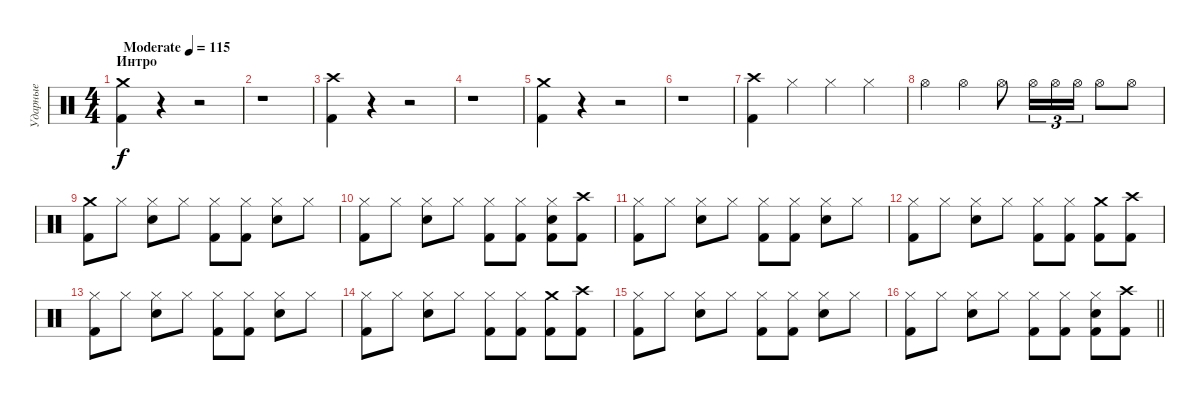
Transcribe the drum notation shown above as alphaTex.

\track ("Ударные" "Ударные") {instrument percussion}
\staff {score}
\articulation defaults
\ts (4 4)
\section ("" "Интро")
\tempo (115 "Moderate")
\clef neutral
\ks c
("Kick (hit) 2" "Crash medium (hit)").4{dy f} r.4 r.2 |
r.1 |
("Kick (hit) 2" "Crash high (hit)").4 r.4 r.2 |
r.1 |
("Kick (hit) 2" "Crash medium (hit)").4 r.4 r.2 |
r.1 |
("Kick (hit) 2" "Crash high (hit)").4 "Hi-Hat (closed)".4 "Hi-Hat (closed)".4 "Hi-Hat (closed)".4 |
"Hi-Hat (open)".4 "Hi-Hat (open)".4 "Hi-Hat (open)".8 "Hi-Hat (open)".16{tu (3 2)} "Hi-Hat (open)".16{tu (3 2)} "Hi-Hat (open)".16{tu (3 2)} "Hi-Hat (open)".8 "Hi-Hat (open)".8 |
("Kick (hit) 2" "Crash medium (hit)").8 "Hi-Hat (closed)".8 ("Snare (hit) 2" "Hi-Hat (closed)").8 "Hi-Hat (closed)".8 ("Kick (hit) 2" "Hi-Hat (closed)").8 ("Kick (hit) 2" "Hi-Hat (closed)").8 ("Snare (hit) 2" "Hi-Hat (closed)").8 "Hi-Hat (closed)".8 |
("Kick (hit) 2" "Hi-Hat (closed)").8 "Hi-Hat (closed)".8 ("Snare (hit) 2" "Hi-Hat (closed)").8 "Hi-Hat (closed)".8 ("Kick (hit) 2" "Hi-Hat (closed)").8 ("Kick (hit) 2" "Hi-Hat (closed)").8 ("Kick (hit) 2" "Snare (hit) 2" "Hi-Hat (closed)").8 ("Kick (hit) 2" "Crash high (hit)").8 |
("Kick (hit) 2" "Hi-Hat (closed)").8 "Hi-Hat (closed)".8 ("Snare (hit) 2" "Hi-Hat (closed)").8 "Hi-Hat (closed)".8 ("Kick (hit) 2" "Hi-Hat (closed)").8 ("Kick (hit) 2" "Hi-Hat (closed)").8 ("Snare (hit) 2" "Hi-Hat (closed)").8 "Hi-Hat (closed)".8 |
("Kick (hit) 2" "Hi-Hat (closed)").8 "Hi-Hat (closed)".8 ("Snare (hit) 2" "Hi-Hat (closed)").8 "Hi-Hat (closed)".8 ("Kick (hit) 2" "Hi-Hat (closed)").8 ("Kick (hit) 2" "Hi-Hat (closed)").8 ("Kick (hit) 2" "Crash medium (hit)").8 ("Kick (hit) 2" "Crash high (hit)").8 |
("Kick (hit) 2" "Hi-Hat (closed)").8 "Hi-Hat (closed)".8 ("Snare (hit) 2" "Hi-Hat (closed)").8 "Hi-Hat (closed)".8 ("Kick (hit) 2" "Hi-Hat (closed)").8 ("Kick (hit) 2" "Hi-Hat (closed)").8 ("Snare (hit) 2" "Hi-Hat (closed)").8 "Hi-Hat (closed)".8 |
("Kick (hit) 2" "Hi-Hat (closed)").8 "Hi-Hat (closed)".8 ("Snare (hit) 2" "Hi-Hat (closed)").8 "Hi-Hat (closed)".8 ("Kick (hit) 2" "Hi-Hat (closed)").8 ("Kick (hit) 2" "Hi-Hat (closed)").8 ("Kick (hit) 2" "Crash medium (hit)").8 ("Kick (hit) 2" "Crash high (hit)").8 |
("Kick (hit) 2" "Hi-Hat (closed)").8 "Hi-Hat (closed)".8 ("Snare (hit) 2" "Hi-Hat (closed)").8 "Hi-Hat (closed)".8 ("Kick (hit) 2" "Hi-Hat (closed)").8 ("Kick (hit) 2" "Hi-Hat (closed)").8 ("Snare (hit) 2" "Hi-Hat (closed)").8 "Hi-Hat (closed)".8 |
\barLineRight lightlight
("Kick (hit) 2" "Hi-Hat (closed)").8 "Hi-Hat (closed)".8 ("Snare (hit) 2" "Hi-Hat (closed)").8 "Hi-Hat (closed)".8 ("Kick (hit) 2" "Hi-Hat (closed)").8 ("Kick (hit) 2" "Hi-Hat (closed)").8 ("Kick (hit) 2" "Snare (hit) 2" "Hi-Hat (closed)").8 ("Kick (hit) 2" "Crash high (hit)").8
